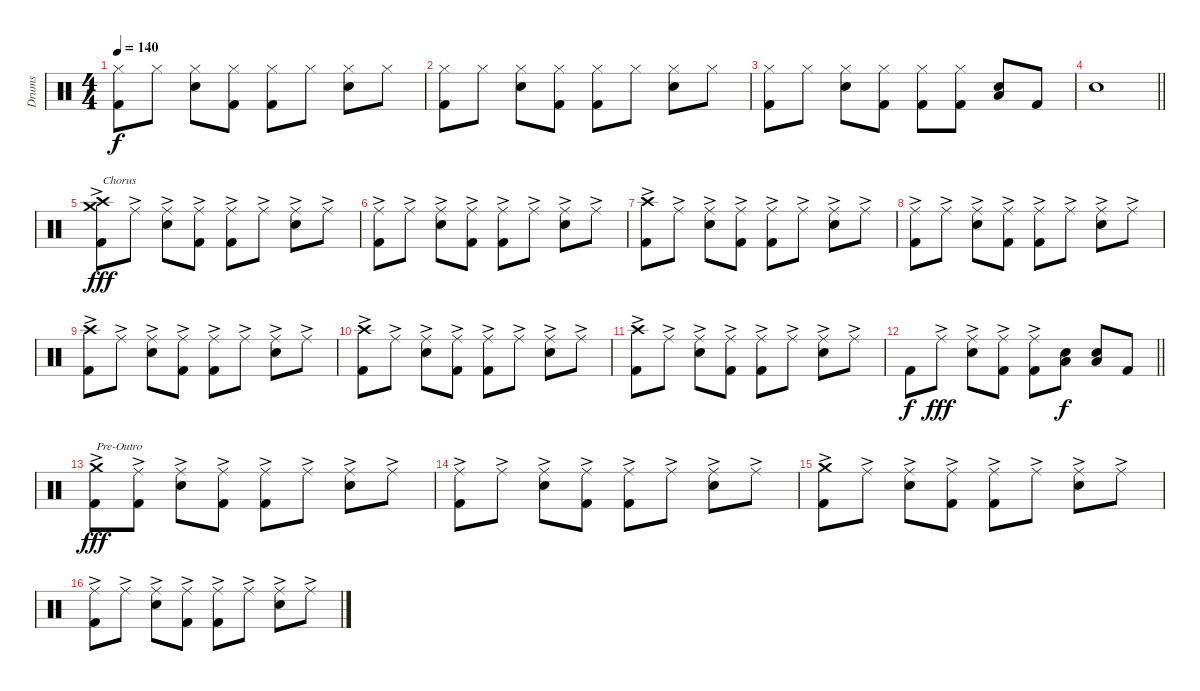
\track ("Drums" "Drums") {instrument percussion}
\staff {score}
\articulation defaults
\ts (4 4)
\tempo 140
\clef neutral
\ks c
("Hi-Hat (closed)" "Kick (hit) 2").8{dy f} "Hi-Hat (closed)".8 ("Hi-Hat (closed)" "Electric Snare (hit)").8 ("Hi-Hat (closed)" "Kick (hit) 2").8 ("Hi-Hat (closed)" "Kick (hit) 2").8 "Hi-Hat (closed)".8 ("Hi-Hat (closed)" "Electric Snare (hit)").8 "Hi-Hat (closed)".8 |
("Hi-Hat (closed)" "Kick (hit) 2").8 "Hi-Hat (closed)".8 ("Hi-Hat (closed)" "Electric Snare (hit)").8 ("Hi-Hat (closed)" "Kick (hit) 2").8 ("Hi-Hat (closed)" "Kick (hit) 2").8 "Hi-Hat (closed)".8 ("Hi-Hat (closed)" "Electric Snare (hit)").8 "Hi-Hat (closed)".8 |
("Hi-Hat (closed)" "Kick (hit) 2").8 "Hi-Hat (closed)".8 ("Hi-Hat (closed)" "Electric Snare (hit)").8 ("Hi-Hat (closed)" "Kick (hit) 2").8 ("Hi-Hat (closed)" "Kick (hit) 2").8 ("Hi-Hat (closed)" "Kick (hit) 2").8 ("Electric Snare (hit)" "Low Floor Tom (hit)").8 "Kick (hit) 2".8 |
\barLineRight lightlight "Electric Snare (hit)".1
|
("Crash medium (hit)"{ac} "Crash high (hit)"{ac} "Kick (hit) 2").8{txt "Chorus" dy fff} "Ride (middle)"{ac}.8 ("Ride (middle)"{ac} "Electric Snare (hit)").8 ("Ride (middle)"{ac} "Kick (hit) 2").8 ("Ride (middle)"{ac} "Kick (hit) 2").8 "Ride (middle)"{ac}.8 ("Ride (middle)"{ac} "Electric Snare (hit)").8 "Ride (middle)"{ac}.8 |
("Ride (middle)"{ac} "Kick (hit) 2").8 "Ride (middle)"{ac}.8 ("Ride (middle)"{ac} "Electric Snare (hit)").8 ("Ride (middle)"{ac} "Kick (hit) 2").8 ("Ride (middle)"{ac} "Kick (hit) 2").8 "Ride (middle)"{ac}.8 ("Ride (middle)"{ac} "Electric Snare (hit)").8 "Ride (middle)"{ac}.8 |
("Crash high (hit)"{ac} "Kick (hit) 2").8 "Ride (middle)"{ac}.8 ("Ride (middle)"{ac} "Electric Snare (hit)").8 ("Ride (middle)"{ac} "Kick (hit) 2").8 ("Ride (middle)"{ac} "Kick (hit) 2").8 "Ride (middle)"{ac}.8 ("Ride (middle)"{ac} "Electric Snare (hit)").8 "Ride (middle)"{ac}.8 |
("Ride (middle)"{ac} "Kick (hit) 2").8 "Ride (middle)"{ac}.8 ("Ride (middle)"{ac} "Electric Snare (hit)").8 ("Ride (middle)"{ac} "Kick (hit) 2").8 ("Ride (middle)"{ac} "Kick (hit) 2").8 "Ride (middle)"{ac}.8 ("Ride (middle)"{ac} "Electric Snare (hit)").8 "Ride (middle)"{ac}.8 |
("Crash high (hit)"{ac} "Kick (hit) 2").8 "Ride (middle)"{ac}.8 ("Ride (middle)"{ac} "Electric Snare (hit)").8 ("Ride (middle)"{ac} "Kick (hit) 2").8 ("Ride (middle)"{ac} "Kick (hit) 2").8 "Ride (middle)"{ac}.8 ("Ride (middle)"{ac} "Electric Snare (hit)").8 "Ride (middle)"{ac}.8 |
("Crash high (hit)"{ac} "Kick (hit) 2").8 "Ride (middle)"{ac}.8 ("Ride (middle)"{ac} "Electric Snare (hit)").8 ("Ride (middle)"{ac} "Kick (hit) 2").8 ("Ride (middle)"{ac} "Kick (hit) 2").8 "Ride (middle)"{ac}.8 ("Ride (middle)"{ac} "Electric Snare (hit)").8 "Ride (middle)"{ac}.8 |
("Crash high (hit)"{ac} "Kick (hit) 2").8 "Ride (middle)"{ac}.8 ("Ride (middle)"{ac} "Electric Snare (hit)").8 ("Ride (middle)"{ac} "Kick (hit) 2").8 ("Ride (middle)"{ac} "Kick (hit) 2").8 "Ride (middle)"{ac}.8 ("Ride (middle)"{ac} "Electric Snare (hit)").8 "Ride (middle)"{ac}.8 |
\barLineRight lightlight "Kick (hit) 2".8{dy f} "Ride (middle)"{ac}.8{dy fff}
("Ride (middle)"{ac} "Electric Snare (hit)").8 ("Ride (middle)"{ac} "Kick (hit) 2").8 ("Ride (middle)"{ac} "Kick (hit) 2").8 ("Electric Snare (hit)" "Low Floor Tom (hit)").8{dy f} ("Electric Snare (hit)" "Low Floor Tom (hit)").8 "Kick (hit) 2".8 |
("Crash medium (hit)"{ac} "Kick (hit) 2").8{txt "Pre-Outro" dy fff} ("Ride (middle)"{ac} "Kick (hit) 2").8 ("Ride (middle)"{ac} "Electric Snare (hit)").8 ("Ride (middle)"{ac} "Kick (hit) 2").8 ("Ride (middle)"{ac} "Kick (hit) 2").8 "Ride (middle)"{ac}.8 ("Ride (middle)"{ac} "Electric Snare (hit)").8 "Ride (middle)"{ac}.8 |
("Ride (middle)"{ac} "Kick (hit) 2").8 "Ride (middle)"{ac}.8 ("Ride (middle)"{ac} "Electric Snare (hit)").8 ("Ride (middle)"{ac} "Kick (hit) 2").8 ("Ride (middle)"{ac} "Kick (hit) 2").8 "Ride (middle)"{ac}.8 ("Ride (middle)"{ac} "Electric Snare (hit)").8 "Ride (middle)"{ac}.8 |
("Crash medium (hit)"{ac} "Kick (hit) 2").8 "Ride (middle)"{ac}.8 ("Ride (middle)"{ac} "Electric Snare (hit)").8 ("Ride (middle)"{ac} "Kick (hit) 2").8 ("Ride (middle)"{ac} "Kick (hit) 2").8 "Ride (middle)"{ac}.8 ("Ride (middle)"{ac} "Electric Snare (hit)").8 "Ride (middle)"{ac}.8 |
("Ride (middle)"{ac} "Kick (hit) 2").8 "Ride (middle)"{ac}.8 ("Ride (middle)"{ac} "Electric Snare (hit)").8 ("Ride (middle)"{ac} "Kick (hit) 2").8 ("Ride (middle)"{ac} "Kick (hit) 2").8 "Ride (middle)"{ac}.8 ("Ride (middle)"{ac} "Electric Snare (hit)").8 "Ride (middle)"{ac}.8
